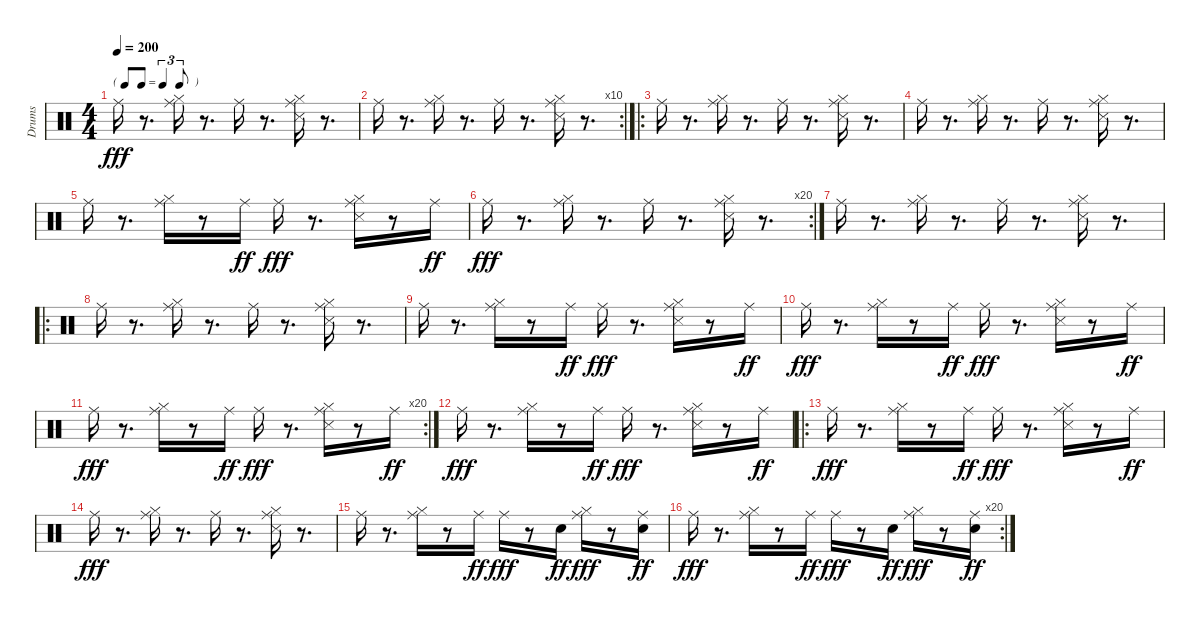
\track ("Drums                                   " "Drums     ") {instrument percussion}
\staff {score}
\articulation defaults
\ts (4 4)
\tf triplet8th
\tempo 200
\clef neutral
\ks c "Ride (middle)".16{dy fff}
r.8{d} ("Hi-Hat (closed)" "Ride (middle)").16 r.8{d} "Ride (middle)".16 r.8{d} ("Hi-Hat (closed)" "Snare (side stick) 3" "Ride (middle)").16 r.8{d} |
\rc 10 "Ride (middle)".16
r.8{d} ("Hi-Hat (closed)" "Ride (middle)").16 r.8{d} "Ride (middle)".16 r.8{d} ("Hi-Hat (closed)" "Snare (side stick) 3" "Ride (middle)").16 r.8{d} |
\ro "Ride (middle)".16
r.8{d} ("Hi-Hat (closed)" "Ride (middle)").16 r.8{d} "Ride (middle)".16 r.8{d} ("Hi-Hat (closed)" "Snare (side stick) 3" "Ride (middle)").16 r.8{d} |
"Ride (middle)".16 r.8{d} ("Hi-Hat (closed)" "Ride (middle)").16 r.8{d} "Ride (middle)".16 r.8{d} ("Hi-Hat (closed)" "Snare (side stick) 3" "Ride (middle)").16 r.8{d} |
"Ride (middle)".16 r.8{d} ("Hi-Hat (closed)" "Ride (middle)").16 r.8 "Ride (middle)".16{dy ff} "Ride (middle)".16{dy fff} r.8{d} ("Hi-Hat (closed)" "Snare (side stick) 3" "Ride (middle)").16 r.8 "Ride (middle)".16{dy ff} |
\rc 20 "Ride (middle)".16{dy fff}
r.8{d} ("Hi-Hat (closed)" "Ride (middle)").16 r.8{d} "Ride (middle)".16 r.8{d} ("Hi-Hat (closed)" "Snare (side stick) 3" "Ride (middle)").16 r.8{d} |
"Ride (middle)".16 r.8{d} ("Hi-Hat (closed)" "Ride (middle)").16 r.8{d} "Ride (middle)".16 r.8{d} ("Hi-Hat (closed)" "Snare (side stick) 3" "Ride (middle)").16 r.8{d} |
\ro "Ride (middle)".16
r.8{d} ("Hi-Hat (closed)" "Ride (middle)").16 r.8{d} "Ride (middle)".16 r.8{d} ("Hi-Hat (closed)" "Snare (side stick) 3" "Ride (middle)").16 r.8{d} |
"Ride (middle)".16 r.8{d} ("Hi-Hat (closed)" "Ride (middle)").16 r.8 "Ride (middle)".16{dy ff} "Ride (middle)".16{dy fff} r.8{d} ("Hi-Hat (closed)" "Snare (side stick) 3" "Ride (middle)").16 r.8 "Ride (middle)".16{dy ff} |
"Ride (middle)".16{dy fff} r.8{d} ("Hi-Hat (closed)" "Ride (middle)").16 r.8 "Ride (middle)".16{dy ff} "Ride (middle)".16{dy fff} r.8{d} ("Hi-Hat (closed)" "Snare (side stick) 3" "Ride (middle)").16 r.8 "Ride (middle)".16{dy ff} |
\rc 20 "Ride (middle)".16{dy fff}
r.8{d} ("Hi-Hat (closed)" "Ride (middle)").16 r.8 "Ride (middle)".16{dy ff} "Ride (middle)".16{dy fff} r.8{d} ("Hi-Hat (closed)" "Snare (side stick) 3" "Ride (middle)").16 r.8 "Ride (middle)".16{dy ff} |
"Ride (middle)".16{dy fff} r.8{d} ("Hi-Hat (closed)" "Ride (middle)").16 r.8 "Ride (middle)".16{dy ff} "Ride (middle)".16{dy fff} r.8{d} ("Hi-Hat (closed)" "Snare (side stick) 3" "Ride (middle)").16 r.8 "Ride (middle)".16{dy ff} |
\ro "Ride (middle)".16{dy fff}
r.8{d} ("Hi-Hat (closed)" "Ride (middle)").16 r.8 "Ride (middle)".16{dy ff} "Ride (middle)".16{dy fff} r.8{d} ("Hi-Hat (closed)" "Snare (side stick) 3" "Ride (middle)").16 r.8 "Ride (middle)".16{dy ff} |
"Ride (middle)".16{dy fff} r.8{d} ("Hi-Hat (closed)" "Ride (middle)").16 r.8{d} "Ride (middle)".16 r.8{d} ("Hi-Hat (closed)" "Snare (side stick) 3" "Ride (middle)").16 r.8{d} |
"Ride (middle)".16 r.8{d} ("Hi-Hat (closed)" "Ride (middle)").16 r.8 "Ride (middle)".16{dy ff} "Ride (middle)".16{dy fff} r.8 "Snare (hit) 2".16{dy ff} ("Hi-Hat (closed)" "Ride (middle)").16{dy fff} r.8 ("Snare (hit) 2" "Ride (middle)").16{dy ff} |
\rc 20 "Ride (middle)".16{dy fff}
r.8{d} ("Hi-Hat (closed)" "Ride (middle)").16 r.8 "Ride (middle)".16{dy ff} "Ride (middle)".16{dy fff} r.8 "Snare (hit) 2".16{dy ff} ("Hi-Hat (closed)" "Ride (middle)").16{dy fff} r.8 ("Snare (hit) 2" "Ride (middle)").16{dy ff}
